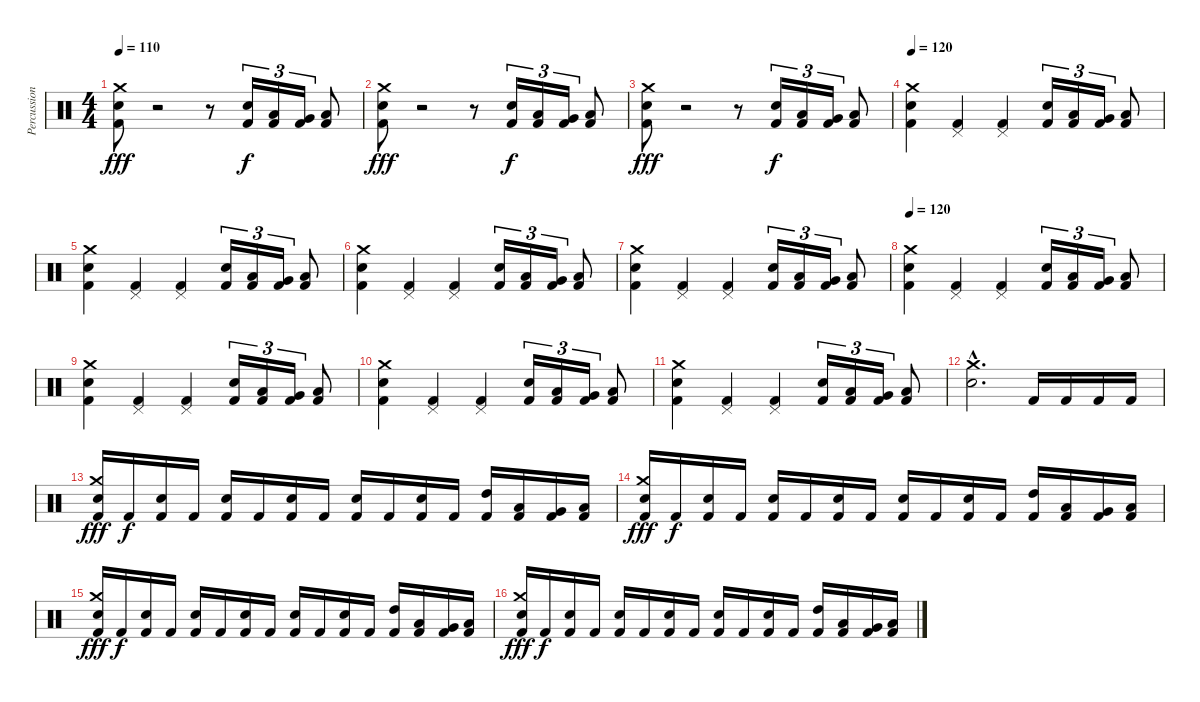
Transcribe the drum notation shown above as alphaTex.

\track ("Percussions" "Percussion") {instrument percussion}
\staff {score}
\articulation defaults
\ts (4 4)
\tempo 110
\clef neutral
\ks c
("Kick (hit) 2" "Snare (hit) 2" "Crash medium (hit)").8{dy fff} r.2 r.8 ("Kick (hit) 2" "Snare (hit) 2").16{tu (3 2) dy f} ("Kick (hit) 2" "Low Tom (hit)").16{tu (3 2)} ("Kick (hit) 2" "Very Low Tom (hit)").16{tu (3 2)} ("Kick (hit) 2" "Low Floor Tom (hit)").8 |
("Kick (hit) 2" "Snare (hit) 2" "Crash medium (hit)").8{dy fff} r.2 r.8 ("Kick (hit) 2" "Snare (hit) 2").16{tu (3 2) dy f} ("Kick (hit) 2" "Low Tom (hit)").16{tu (3 2)} ("Kick (hit) 2" "Very Low Tom (hit)").16{tu (3 2)} ("Kick (hit) 2" "Low Floor Tom (hit)").8 |
("Kick (hit) 2" "Snare (hit) 2" "Crash medium (hit)").8{dy fff} r.2 r.8 ("Kick (hit) 2" "Snare (hit) 2").16{tu (3 2) dy f} ("Kick (hit) 2" "Low Tom (hit)").16{tu (3 2)} ("Kick (hit) 2" "Very Low Tom (hit)").16{tu (3 2)} ("Kick (hit) 2" "Low Floor Tom (hit)").8 |
\tempo 120
("Kick (hit) 2" "Snare (hit) 2" "Crash medium (hit)").4 ("Kick (hit) 2" "Pedal Hi-Hat (hit)").4 ("Kick (hit) 2" "Pedal Hi-Hat (hit)").4 ("Kick (hit) 2" "Snare (hit) 2").16{tu (3 2)} ("Kick (hit) 2" "Low Tom (hit)").16{tu (3 2)} ("Kick (hit) 2" "Very Low Tom (hit)").16{tu (3 2)} ("Kick (hit) 2" "Low Floor Tom (hit)").8 |
("Kick (hit) 2" "Snare (hit) 2" "Crash medium (hit)").4 ("Kick (hit) 2" "Pedal Hi-Hat (hit)").4 ("Kick (hit) 2" "Pedal Hi-Hat (hit)").4 ("Kick (hit) 2" "Snare (hit) 2").16{tu (3 2)} ("Kick (hit) 2" "Low Tom (hit)").16{tu (3 2)} ("Kick (hit) 2" "Very Low Tom (hit)").16{tu (3 2)} ("Kick (hit) 2" "Low Floor Tom (hit)").8 |
("Kick (hit) 2" "Snare (hit) 2" "Crash medium (hit)").4 ("Kick (hit) 2" "Pedal Hi-Hat (hit)").4 ("Kick (hit) 2" "Pedal Hi-Hat (hit)").4 ("Kick (hit) 2" "Snare (hit) 2").16{tu (3 2)} ("Kick (hit) 2" "Low Tom (hit)").16{tu (3 2)} ("Kick (hit) 2" "Very Low Tom (hit)").16{tu (3 2)} ("Kick (hit) 2" "Low Floor Tom (hit)").8 |
("Kick (hit) 2" "Snare (hit) 2" "Crash medium (hit)").4 ("Kick (hit) 2" "Pedal Hi-Hat (hit)").4 ("Kick (hit) 2" "Pedal Hi-Hat (hit)").4 ("Kick (hit) 2" "Snare (hit) 2").16{tu (3 2)} ("Kick (hit) 2" "Low Tom (hit)").16{tu (3 2)} ("Kick (hit) 2" "Very Low Tom (hit)").16{tu (3 2)} ("Kick (hit) 2" "Low Floor Tom (hit)").8 |
\tempo 120
("Kick (hit) 2" "Snare (hit) 2" "Crash medium (hit)").4 ("Kick (hit) 2" "Pedal Hi-Hat (hit)").4 ("Kick (hit) 2" "Pedal Hi-Hat (hit)").4 ("Kick (hit) 2" "Snare (hit) 2").16{tu (3 2)} ("Kick (hit) 2" "Low Tom (hit)").16{tu (3 2)} ("Kick (hit) 2" "Very Low Tom (hit)").16{tu (3 2)} ("Kick (hit) 2" "Low Floor Tom (hit)").8 |
("Kick (hit) 2" "Snare (hit) 2" "Crash medium (hit)").4 ("Kick (hit) 2" "Pedal Hi-Hat (hit)").4 ("Kick (hit) 2" "Pedal Hi-Hat (hit)").4 ("Kick (hit) 2" "Snare (hit) 2").16{tu (3 2)} ("Kick (hit) 2" "Low Tom (hit)").16{tu (3 2)} ("Kick (hit) 2" "Very Low Tom (hit)").16{tu (3 2)} ("Kick (hit) 2" "Low Floor Tom (hit)").8 |
("Kick (hit) 2" "Snare (hit) 2" "Crash medium (hit)").4 ("Kick (hit) 2" "Pedal Hi-Hat (hit)").4 ("Kick (hit) 2" "Pedal Hi-Hat (hit)").4 ("Kick (hit) 2" "Snare (hit) 2").16{tu (3 2)} ("Kick (hit) 2" "Low Tom (hit)").16{tu (3 2)} ("Kick (hit) 2" "Very Low Tom (hit)").16{tu (3 2)} ("Kick (hit) 2" "Low Floor Tom (hit)").8 |
("Kick (hit) 2" "Snare (hit) 2" "Crash medium (hit)").4 ("Kick (hit) 2" "Pedal Hi-Hat (hit)").4 ("Kick (hit) 2" "Pedal Hi-Hat (hit)").4 ("Kick (hit) 2" "Snare (hit) 2").16{tu (3 2)} ("Kick (hit) 2" "Low Tom (hit)").16{tu (3 2)} ("Kick (hit) 2" "Very Low Tom (hit)").16{tu (3 2)} ("Kick (hit) 2" "Low Floor Tom (hit)").8 |
("Snare (hit) 2"{hac} "Crash medium (hit)"{hac}).2{d} "Kick (hit) 2".16 "Kick (hit) 2".16 "Kick (hit) 2".16 "Kick (hit) 2".16 |
("Kick (hit) 2" "Electric Snare (hit)" "Crash medium (hit)").16{dy fff} "Kick (hit) 2".16{dy f} ("Kick (hit) 2" "Snare (hit) 2").16 "Kick (hit) 2".16 ("Kick (hit) 2" "Electric Snare (hit)").16 "Kick (hit) 2".16 ("Kick (hit) 2" "Snare (hit) 2").16 "Kick (hit) 2".16 ("Kick (hit) 2" "Electric Snare (hit)").16 "Kick (hit) 2".16 ("Kick (hit) 2" "Snare (hit) 2").16 "Kick (hit) 2".16 ("Kick (hit) 2" "High Tom (hit)").16 ("Kick (hit) 2" "Low Tom (hit)").16 ("Kick (hit) 2" "Very Low Tom (hit)").16 ("Kick (hit) 2" "Low Floor Tom (hit)").16 |
("Kick (hit) 2" "Electric Snare (hit)" "Crash medium (hit)").16{dy fff} "Kick (hit) 2".16{dy f} ("Kick (hit) 2" "Snare (hit) 2").16 "Kick (hit) 2".16 ("Kick (hit) 2" "Electric Snare (hit)").16 "Kick (hit) 2".16 ("Kick (hit) 2" "Snare (hit) 2").16 "Kick (hit) 2".16 ("Kick (hit) 2" "Electric Snare (hit)").16 "Kick (hit) 2".16 ("Kick (hit) 2" "Snare (hit) 2").16 "Kick (hit) 2".16 ("Kick (hit) 2" "High Tom (hit)").16 ("Kick (hit) 2" "Low Tom (hit)").16 ("Kick (hit) 2" "Very Low Tom (hit)").16 ("Kick (hit) 2" "Low Floor Tom (hit)").16 |
("Kick (hit) 2" "Electric Snare (hit)" "Crash medium (hit)").16{dy fff} "Kick (hit) 2".16{dy f} ("Kick (hit) 2" "Snare (hit) 2").16 "Kick (hit) 2".16 ("Kick (hit) 2" "Electric Snare (hit)").16 "Kick (hit) 2".16 ("Kick (hit) 2" "Snare (hit) 2").16 "Kick (hit) 2".16 ("Kick (hit) 2" "Electric Snare (hit)").16 "Kick (hit) 2".16 ("Kick (hit) 2" "Snare (hit) 2").16 "Kick (hit) 2".16 ("Kick (hit) 2" "High Tom (hit)").16 ("Kick (hit) 2" "Low Tom (hit)").16 ("Kick (hit) 2" "Very Low Tom (hit)").16 ("Kick (hit) 2" "Low Floor Tom (hit)").16 |
("Kick (hit) 2" "Electric Snare (hit)" "Crash medium (hit)").16{dy fff} "Kick (hit) 2".16{dy f} ("Kick (hit) 2" "Snare (hit) 2").16 "Kick (hit) 2".16 ("Kick (hit) 2" "Electric Snare (hit)").16 "Kick (hit) 2".16 ("Kick (hit) 2" "Snare (hit) 2").16 "Kick (hit) 2".16 ("Kick (hit) 2" "Electric Snare (hit)").16 "Kick (hit) 2".16 ("Kick (hit) 2" "Snare (hit) 2").16 "Kick (hit) 2".16 ("Kick (hit) 2" "High Tom (hit)").16 ("Kick (hit) 2" "Low Tom (hit)").16 ("Kick (hit) 2" "Very Low Tom (hit)").16 ("Kick (hit) 2" "Low Floor Tom (hit)").16
